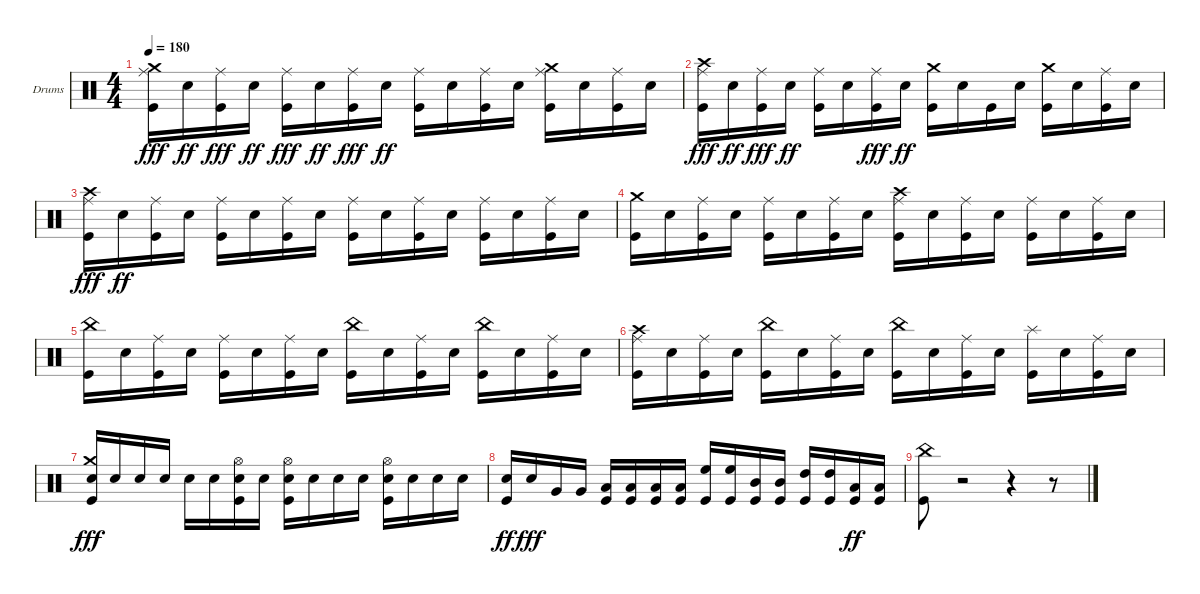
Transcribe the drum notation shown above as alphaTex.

\bracketExtendMode groupsimilarinstruments
\firstSystemTrackNameOrientation horizontal
\otherSystemsTrackNameOrientation horizontal
\track ("Drumkit" "Drums") {instrument percussion}
\staff {score}
\articulation defaults
\ts (4 4)
\tempo 180
\clef neutral
\ks c
("Ride (middle)" "Kick (hit)" "Crash medium (hit)").16{dy fff} "Snare (hit) 2".16{dy ff} ("Ride (middle)" "Kick (hit)").16{dy fff} "Snare (hit) 2".16{dy ff} ("Ride (middle)" "Kick (hit)").16{dy fff} "Snare (hit) 2".16{dy ff} ("Ride (middle)" "Kick (hit)").16{dy fff} "Snare (hit) 2".16{dy ff} ("Kick (hit)" "Ride (middle)").16 "Snare (hit) 2".16 ("Kick (hit)" "Ride (middle)").16 "Snare (hit) 2".16 ("Kick (hit)" "Ride (middle)" "Crash medium (hit)").16 "Snare (hit) 2".16 ("Kick (hit)" "Ride (middle)").16 "Snare (hit) 2".16 |
("Ride (middle)" "Kick (hit)" "Crash high (hit)").16{dy fff} "Snare (hit) 2".16{dy ff} ("Ride (middle)" "Kick (hit)").16{dy fff} "Snare (hit) 2".16{dy ff} ("Kick (hit)" "Ride (middle)").16 "Snare (hit) 2".16 ("Ride (middle)" "Kick (hit)").16{dy fff} "Snare (hit) 2".16{dy ff} ("Kick (hit)" "Crash medium (hit)").16 "Snare (hit) 2".16 "Kick (hit)".16 "Snare (hit) 2".16 ("Kick (hit)" "Crash medium (hit)").16 "Snare (hit) 2".16 ("Kick (hit)" "Ride (middle)").16 "Snare (hit) 2".16 |
("Crash high (hit)" "Kick (hit)" "Ride (middle)").16{dy fff} "Snare (hit) 2".16{dy ff} ("Kick (hit)" "Ride (middle)").16 "Snare (hit) 2".16 ("Kick (hit)" "Ride (middle)").16 "Snare (hit) 2".16 ("Kick (hit)" "Ride (middle)").16 "Snare (hit) 2".16 ("Kick (hit)" "Ride (middle)").16 "Snare (hit) 2".16 ("Kick (hit)" "Ride (middle)").16 "Snare (hit) 2".16 ("Kick (hit)" "Ride (middle)").16 "Snare (hit) 2".16 ("Kick (hit)" "Ride (middle)").16 "Snare (hit) 2".16 |
("Kick (hit)" "Crash medium (hit)").16 "Snare (hit) 2".16 ("Kick (hit)" "Ride (middle)").16 "Snare (hit) 2".16 ("Kick (hit)" "Ride (middle)").16 "Snare (hit) 2".16 ("Kick (hit)" "Ride (middle)").16 "Snare (hit) 2".16 ("Kick (hit)" "Ride (middle)" "Crash high (hit)").16 "Snare (hit) 2".16 ("Kick (hit)" "Ride (middle)").16 "Snare (hit) 2".16 ("Kick (hit)" "Ride (middle)").16 "Snare (hit) 2".16 ("Kick (hit)" "Ride (middle)").16 "Snare (hit) 2".16 |
("Kick (hit)" "China (hit)").16 "Snare (hit) 2".16 ("Kick (hit)" "Ride (middle)").16 "Snare (hit) 2".16 ("Kick (hit)" "Ride (middle)").16 "Snare (hit) 2".16 ("Kick (hit)" "Ride (middle)").16 "Snare (hit) 2".16 ("Kick (hit)" "China (hit)").16 "Snare (hit) 2".16 ("Kick (hit)" "Ride (middle)").16 "Snare (hit) 2".16 ("Kick (hit)" "China (hit)").16 "Snare (hit) 2".16 ("Kick (hit)" "Ride (middle)").16 "Snare (hit) 2".16 |
("Kick (hit)" "Crash high (hit)" "Ride (middle)").16 "Snare (hit) 2".16 ("Kick (hit)" "Ride (middle)").16 "Snare (hit) 2".16 ("Kick (hit)" "China (hit)").16 "Snare (hit) 2".16 ("Kick (hit)" "Ride (middle)").16 "Snare (hit) 2".16 ("Kick (hit)" "China (hit)").16 "Snare (hit) 2".16 ("Kick (hit)" "Ride (middle)").16 "Snare (hit) 2".16 ("Kick (hit)" "Splash (hit)").16 "Snare (hit) 2".16 ("Kick (hit)" "Ride (middle)").16 "Snare (hit) 2".16 |
("Crash medium (hit)" "Kick (hit)" "Snare (hit) 2").16{dy fff} "Snare (hit) 2".16 "Snare (hit) 2".16 "Snare (hit) 2".16 "Snare (hit) 2".16 "Snare (hit) 2".16 ("Hi-Hat (open)" "Snare (hit) 2" "Kick (hit)").16 "Snare (hit) 2".16 ("Hi-Hat (open)" "Snare (hit) 2" "Kick (hit)").16 "Snare (hit) 2".16 "Snare (hit) 2".16 "Snare (hit) 2".16 ("Hi-Hat (open)" "Snare (hit) 2" "Kick (hit)").16 "Snare (hit) 2".16 "Snare (hit) 2".16 "Snare (hit) 2".16 |
("Kick (hit)" "Snare (hit) 2").16{dy ff} "Snare (hit) 2".16{dy fff} "Very Low Tom (hit)".16 "Very Low Tom (hit)".16 ("Low Tom (hit)" "Kick (hit)").16 ("Low Tom (hit)" "Kick (hit)").16 ("Low Tom (hit)" "Kick (hit)").16 ("Low Tom (hit)" "Kick (hit)").16 ("High Floor Tom (hit)" "Kick (hit)").16 ("High Floor Tom (hit)" "Kick (hit)").16 ("Mid Tom (hit)" "Kick (hit)").16 ("Mid Tom (hit)" "Kick (hit)").16 ("High Tom (hit)" "Kick (hit)").16 ("High Tom (hit)" "Kick (hit)").16 ("Kick (hit)" "Low Tom (hit)").16{dy ff} ("Kick (hit)" "Low Tom (hit)").16 |
("Kick (hit)" "China (hit)").8 r.2 r.4 r.8
